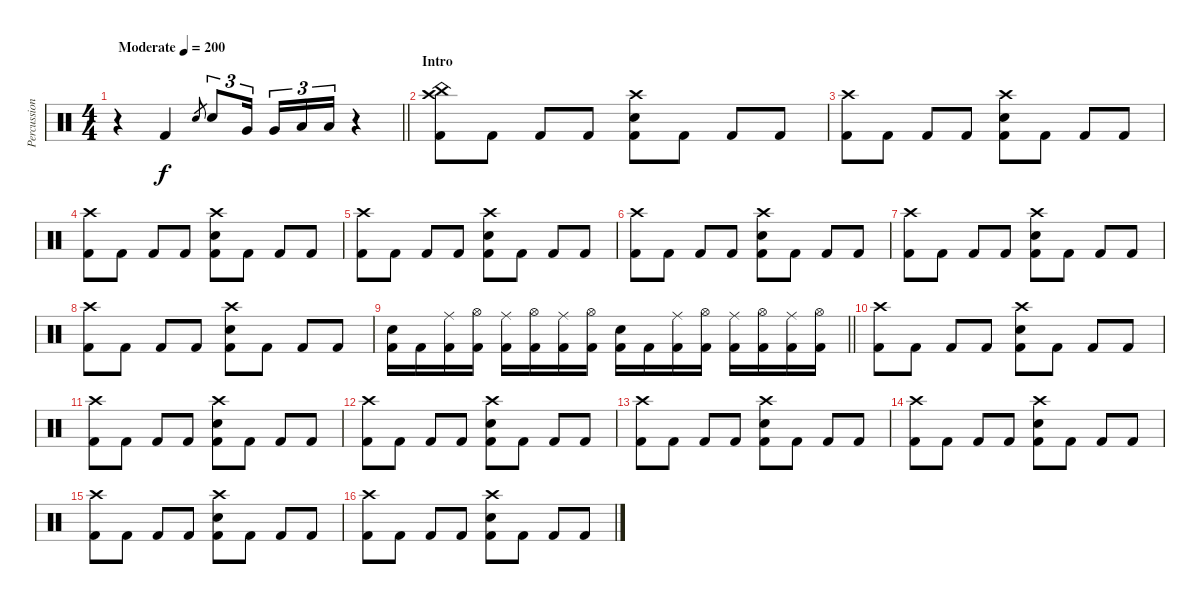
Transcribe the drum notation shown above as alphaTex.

\track ("Percussion" "Percussion") {instrument percussion}
\staff {score}
\articulation defaults
\ts (4 4)
\tempo (200 "Moderate")
\clef neutral
\barLineRight lightlight
\ks c
r.4{dy f} "Kick (hit) 2".4 "Electric Snare (hit)".8{gr} "Electric Snare (hit)".8{tu (3 2)} "Very Low Tom (hit)".16{tu (3 2) beam splitsecondary} "Very Low Tom (hit)".16{tu (3 2)} "Low Floor Tom (hit)".16{tu (3 2)} "Low Floor Tom (hit)".16{tu (3 2)} r.4 |
\section ("" "Intro")
("Crash high (hit)" "China (hit)" "Kick (hit) 2").8 "Kick (hit) 2".8 "Kick (hit) 2".8 "Kick (hit) 2".8 ("Crash high (hit)" "Electric Snare (hit)" "Kick (hit) 2").8 "Kick (hit) 2".8 "Kick (hit) 2".8 "Kick (hit) 2".8 |
("Crash high (hit)" "Kick (hit) 2").8 "Kick (hit) 2".8 "Kick (hit) 2".8 "Kick (hit) 2".8 ("Crash high (hit)" "Electric Snare (hit)" "Kick (hit) 2").8 "Kick (hit) 2".8 "Kick (hit) 2".8 "Kick (hit) 2".8 |
("Crash high (hit)" "Kick (hit) 2").8 "Kick (hit) 2".8 "Kick (hit) 2".8 "Kick (hit) 2".8 ("Crash high (hit)" "Electric Snare (hit)" "Kick (hit) 2").8 "Kick (hit) 2".8 "Kick (hit) 2".8 "Kick (hit) 2".8 |
("Crash high (hit)" "Kick (hit) 2").8 "Kick (hit) 2".8 "Kick (hit) 2".8 "Kick (hit) 2".8 ("Crash high (hit)" "Electric Snare (hit)" "Kick (hit) 2").8 "Kick (hit) 2".8 "Kick (hit) 2".8 "Kick (hit) 2".8 |
("Crash high (hit)" "Kick (hit) 2").8 "Kick (hit) 2".8 "Kick (hit) 2".8 "Kick (hit) 2".8 ("Crash high (hit)" "Electric Snare (hit)" "Kick (hit) 2").8 "Kick (hit) 2".8 "Kick (hit) 2".8 "Kick (hit) 2".8 |
("Crash high (hit)" "Kick (hit) 2").8 "Kick (hit) 2".8 "Kick (hit) 2".8 "Kick (hit) 2".8 ("Crash high (hit)" "Electric Snare (hit)" "Kick (hit) 2").8 "Kick (hit) 2".8 "Kick (hit) 2".8 "Kick (hit) 2".8 |
("Crash high (hit)" "Kick (hit) 2").8 "Kick (hit) 2".8 "Kick (hit) 2".8 "Kick (hit) 2".8 ("Crash high (hit)" "Electric Snare (hit)" "Kick (hit) 2").8 "Kick (hit) 2".8 "Kick (hit) 2".8 "Kick (hit) 2".8 |
\barLineRight lightlight
("Electric Snare (hit)" "Kick (hit) 2").16 "Kick (hit) 2".16 ("Ride (middle)" "Kick (hit) 2").16 ("Hi-Hat (open)" "Kick (hit) 2").16 ("Ride (middle)" "Kick (hit) 2").16 ("Hi-Hat (open)" "Kick (hit) 2").16 ("Ride (middle)" "Kick (hit) 2").16 ("Hi-Hat (open)" "Kick (hit) 2").16 ("Electric Snare (hit)" "Kick (hit) 2").16 "Kick (hit) 2".16 ("Ride (middle)" "Kick (hit) 2").16 ("Hi-Hat (open)" "Kick (hit) 2").16 ("Ride (middle)" "Kick (hit) 2").16 ("Hi-Hat (open)" "Kick (hit) 2").16 ("Ride (middle)" "Kick (hit) 2").16 ("Hi-Hat (open)" "Kick (hit) 2").16 |
("Crash high (hit)" "Kick (hit) 2").8 "Kick (hit) 2".8 "Kick (hit) 2".8 "Kick (hit) 2".8 ("Crash high (hit)" "Electric Snare (hit)" "Kick (hit) 2").8 "Kick (hit) 2".8 "Kick (hit) 2".8 "Kick (hit) 2".8 |
("Crash high (hit)" "Kick (hit) 2").8 "Kick (hit) 2".8 "Kick (hit) 2".8 "Kick (hit) 2".8 ("Crash high (hit)" "Electric Snare (hit)" "Kick (hit) 2").8 "Kick (hit) 2".8 "Kick (hit) 2".8 "Kick (hit) 2".8 |
("Crash high (hit)" "Kick (hit) 2").8 "Kick (hit) 2".8 "Kick (hit) 2".8 "Kick (hit) 2".8 ("Crash high (hit)" "Electric Snare (hit)" "Kick (hit) 2").8 "Kick (hit) 2".8 "Kick (hit) 2".8 "Kick (hit) 2".8 |
("Crash high (hit)" "Kick (hit) 2").8 "Kick (hit) 2".8 "Kick (hit) 2".8 "Kick (hit) 2".8 ("Crash high (hit)" "Electric Snare (hit)" "Kick (hit) 2").8 "Kick (hit) 2".8 "Kick (hit) 2".8 "Kick (hit) 2".8 |
("Crash high (hit)" "Kick (hit) 2").8 "Kick (hit) 2".8 "Kick (hit) 2".8 "Kick (hit) 2".8 ("Crash high (hit)" "Electric Snare (hit)" "Kick (hit) 2").8 "Kick (hit) 2".8 "Kick (hit) 2".8 "Kick (hit) 2".8 |
("Crash high (hit)" "Kick (hit) 2").8 "Kick (hit) 2".8 "Kick (hit) 2".8 "Kick (hit) 2".8 ("Crash high (hit)" "Electric Snare (hit)" "Kick (hit) 2").8 "Kick (hit) 2".8 "Kick (hit) 2".8 "Kick (hit) 2".8 |
("Crash high (hit)" "Kick (hit) 2").8 "Kick (hit) 2".8 "Kick (hit) 2".8 "Kick (hit) 2".8 ("Crash high (hit)" "Electric Snare (hit)" "Kick (hit) 2").8 "Kick (hit) 2".8 "Kick (hit) 2".8 "Kick (hit) 2".8
